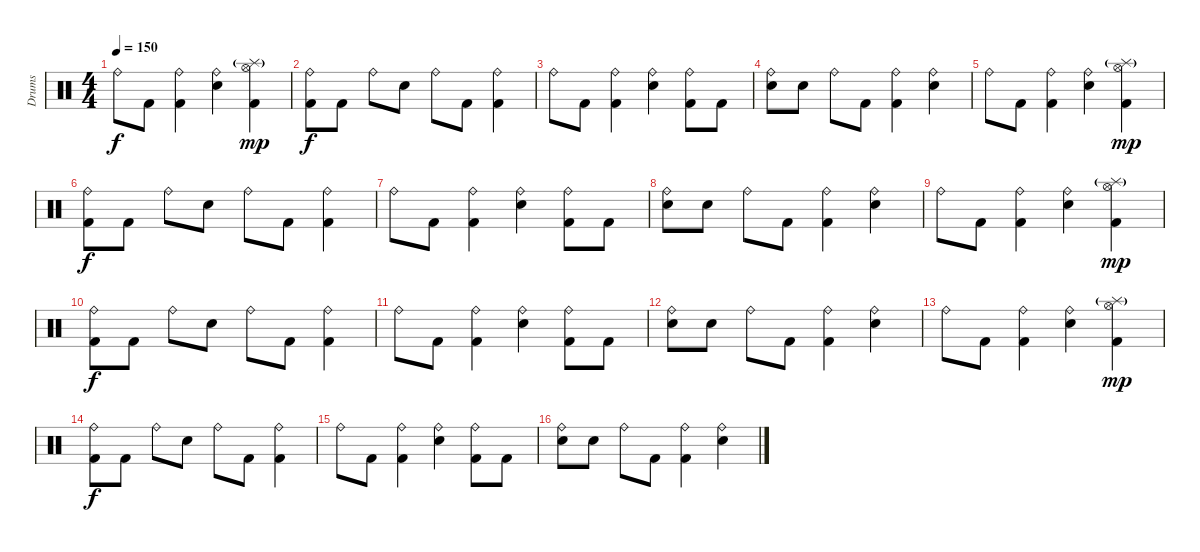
\track ("Drums" "Drums") {instrument percussion}
\staff {score}
\articulation defaults
\ts (4 4)
\tempo 150
\clef neutral
\ks c "Ride (bell)".8{dy f} "Kick (hit) 2".8
("Ride (bell)" "Kick (hit) 2").4 ("Ride (bell)" "Electric Snare (hit)").4 ("Hi-Hat (open)" "Splash (hit)"{g} "Kick (hit) 2").4{dy mp} |
("Ride (bell)" "Kick (hit) 2").8{dy f volume 10} "Kick (hit) 2".8 "Ride (bell)".8 "Electric Snare (hit)".8 "Ride (bell)".8 "Kick (hit) 2".8 ("Ride (bell)" "Kick (hit) 2").4 |
"Ride (bell)".8 "Kick (hit) 2".8 ("Ride (bell)" "Kick (hit) 2").4 ("Ride (bell)" "Electric Snare (hit)").4 ("Ride (bell)" "Kick (hit) 2").8 "Kick (hit) 2".8 |
("Ride (bell)" "Electric Snare (hit)").8{volume 10} "Electric Snare (hit)".8 "Ride (bell)".8 "Kick (hit) 2".8 ("Ride (bell)" "Kick (hit) 2").4 ("Ride (bell)" "Electric Snare (hit)").4 |
"Ride (bell)".8 "Kick (hit) 2".8 ("Ride (bell)" "Kick (hit) 2").4 ("Ride (bell)" "Electric Snare (hit)").4 ("Hi-Hat (open)" "Splash (hit)"{g} "Kick (hit) 2").4{dy mp} |
("Ride (bell)" "Kick (hit) 2").8{dy f volume 10} "Kick (hit) 2".8 "Ride (bell)".8 "Electric Snare (hit)".8 "Ride (bell)".8 "Kick (hit) 2".8 ("Ride (bell)" "Kick (hit) 2").4 |
"Ride (bell)".8 "Kick (hit) 2".8 ("Ride (bell)" "Kick (hit) 2").4 ("Ride (bell)" "Electric Snare (hit)").4 ("Ride (bell)" "Kick (hit) 2").8 "Kick (hit) 2".8 |
("Ride (bell)" "Electric Snare (hit)").8 "Electric Snare (hit)".8 "Ride (bell)".8 "Kick (hit) 2".8 ("Ride (bell)" "Kick (hit) 2").4 ("Ride (bell)" "Electric Snare (hit)").4 |
"Ride (bell)".8 "Kick (hit) 2".8 ("Ride (bell)" "Kick (hit) 2").4 ("Ride (bell)" "Electric Snare (hit)").4 ("Hi-Hat (open)" "Splash (hit)"{g} "Kick (hit) 2").4{dy mp} |
("Ride (bell)" "Kick (hit) 2").8{dy f volume 4} "Kick (hit) 2".8 "Ride (bell)".8 "Electric Snare (hit)".8 "Ride (bell)".8 "Kick (hit) 2".8 ("Ride (bell)" "Kick (hit) 2").4 |
"Ride (bell)".8 "Kick (hit) 2".8 ("Ride (bell)" "Kick (hit) 2").4 ("Ride (bell)" "Electric Snare (hit)").4 ("Ride (bell)" "Kick (hit) 2").8 "Kick (hit) 2".8 |
("Ride (bell)" "Electric Snare (hit)").8 "Electric Snare (hit)".8 "Ride (bell)".8 "Kick (hit) 2".8 ("Ride (bell)" "Kick (hit) 2").4 ("Ride (bell)" "Electric Snare (hit)").4 |
"Ride (bell)".8 "Kick (hit) 2".8 ("Ride (bell)" "Kick (hit) 2").4 ("Ride (bell)" "Electric Snare (hit)").4 ("Hi-Hat (open)" "Splash (hit)"{g} "Kick (hit) 2").4{dy mp} |
("Ride (bell)" "Kick (hit) 2").8{dy f volume 3} "Kick (hit) 2".8 "Ride (bell)".8 "Electric Snare (hit)".8 "Ride (bell)".8 "Kick (hit) 2".8 ("Ride (bell)" "Kick (hit) 2").4 |
"Ride (bell)".8 "Kick (hit) 2".8 ("Ride (bell)" "Kick (hit) 2").4 ("Ride (bell)" "Electric Snare (hit)").4 ("Ride (bell)" "Kick (hit) 2").8 "Kick (hit) 2".8 |
("Ride (bell)" "Electric Snare (hit)").8{volume 0} "Electric Snare (hit)".8 "Ride (bell)".8 "Kick (hit) 2".8 ("Ride (bell)" "Kick (hit) 2").4 ("Ride (bell)" "Electric Snare (hit)").4
